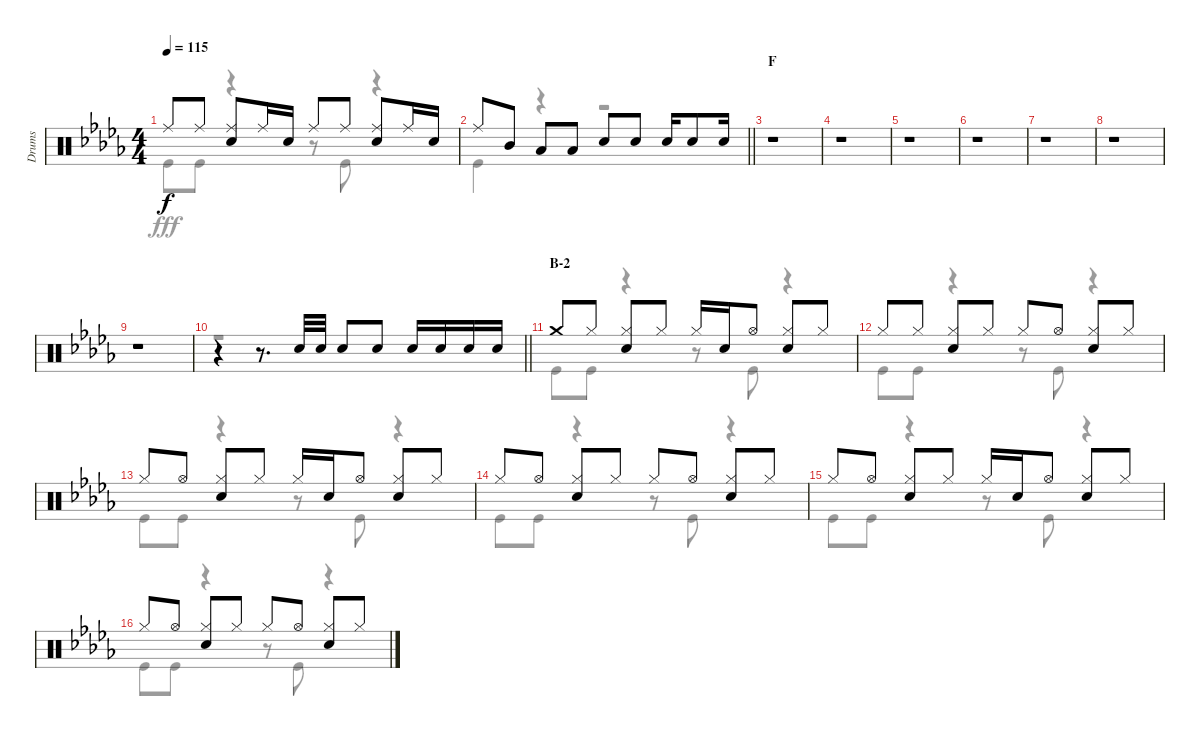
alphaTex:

\track ("Drums" "Drums") {instrument percussion}
\staff {score}
\articulation defaults
\voice
\ts (4 4)
\tempo 115
\clef neutral
\ks db "Ride (middle)".8{dy f} "Ride (middle)".8
("Ride (middle)" "Snare (hit) 2").8 "Ride (middle)".16 "Snare (hit) 2".16 "Ride (middle)".8 "Ride (middle)".8 ("Ride (middle)" "Snare (hit) 2").8 "Ride (middle)".16 "Snare (hit) 2".16 |
\barLineRight lightlight "Ride (middle)".8 "Mid Tom (hit)".8 "Low Tom (hit)".8 "Low Tom (hit)".8 "Snare (hit) 2".8 "Snare (hit) 2".8 "Snare (hit) 2".16 "Snare (hit) 2".8 "Snare (hit) 2".16
|
\section ("" "F")
r.1 |
r.1 |
r.1 |
r.1 |
r.1 |
r.1 |
r.1 |
\barLineRight lightlight
r.4 r.8{d} "Snare (hit) 2".32 "Snare (hit) 2".32 "Snare (hit) 2".8 "Snare (hit) 2".8 "Snare (hit) 2".16 "Snare (hit) 2".16 "Snare (hit) 2".16 "Snare (hit) 2".16 |
\section ("" "B-2")
"Crash medium (hit)".8 "Hi-Hat (closed)".8 ("Hi-Hat (closed)" "Snare (hit) 2").8 "Hi-Hat (closed)".8 "Hi-Hat (closed)".16 "Snare (hit) 2".16 "Hi-Hat (open)".8 ("Hi-Hat (closed)" "Snare (hit) 2").8 "Hi-Hat (closed)".8 |
"Hi-Hat (closed)".8 "Hi-Hat (closed)".8 ("Hi-Hat (closed)" "Snare (hit) 2").8 "Hi-Hat (closed)".8 "Hi-Hat (closed)".8 "Hi-Hat (open)".8 ("Hi-Hat (closed)" "Snare (hit) 2").8 "Hi-Hat (closed)".8 |
"Hi-Hat (closed)".8 "Hi-Hat (open)".8 ("Hi-Hat (closed)" "Snare (hit) 2").8 "Hi-Hat (closed)".8 "Hi-Hat (closed)".16 "Snare (hit) 2".16 "Hi-Hat (open)".8 ("Hi-Hat (closed)" "Snare (hit) 2").8 "Hi-Hat (closed)".8 |
"Hi-Hat (closed)".8 "Hi-Hat (open)".8 ("Hi-Hat (closed)" "Snare (hit) 2").8 "Hi-Hat (closed)".8 "Hi-Hat (closed)".8 "Hi-Hat (open)".8 ("Hi-Hat (closed)" "Snare (hit) 2").8 "Hi-Hat (closed)".8 |
"Hi-Hat (closed)".8 "Hi-Hat (open)".8 ("Hi-Hat (closed)" "Snare (hit) 2").8 "Hi-Hat (closed)".8 "Hi-Hat (closed)".16 "Snare (hit) 2".16 "Hi-Hat (open)".8 ("Hi-Hat (closed)" "Snare (hit) 2").8 "Hi-Hat (closed)".8 |
"Hi-Hat (closed)".8 "Hi-Hat (open)".8 ("Hi-Hat (closed)" "Snare (hit) 2").8 "Hi-Hat (closed)".8 "Hi-Hat (closed)".8 "Hi-Hat (open)".8 ("Hi-Hat (closed)" "Snare (hit) 2").8 "Hi-Hat (closed)".8
\voice
\clef neutral
\ottava regular
\simile none
\ks db "Kick (hit)".8{dy fff} "Kick (hit)".8
r.4 r.8 "Kick (hit)".8 r.4 |
\barLineRight lightlight "Kick (hit)".4
r.4 r.2 |
r.1 |
r.1 |
r.1 |
r.1 |
r.1 |
r.1 |
r.1 |
\barLineRight lightlight
r.1 |
"Kick (hit)".8 "Kick (hit)".8 r.4 r.8 "Kick (hit)".8 r.4 |
"Kick (hit)".8 "Kick (hit)".8 r.4 r.8 "Kick (hit)".8 r.4 |
"Kick (hit)".8 "Kick (hit)".8 r.4 r.8 "Kick (hit)".8 r.4 |
"Kick (hit)".8 "Kick (hit)".8 r.4 r.8 "Kick (hit)".8 r.4 |
"Kick (hit)".8 "Kick (hit)".8 r.4 r.8 "Kick (hit)".8 r.4 |
"Kick (hit)".8 "Kick (hit)".8 r.4 r.8 "Kick (hit)".8 r.4
